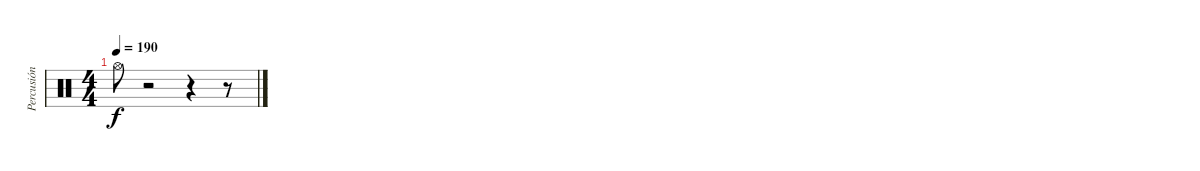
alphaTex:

\track ("Percusión" "Percusión") {instrument percussion}
\staff {score}
\articulation defaults
\ts (4 4)
\tempo 190
\clef neutral
\ks c "Hi-Hat (open)"{t}.8{dy f}
r.2 r.4 r.8
